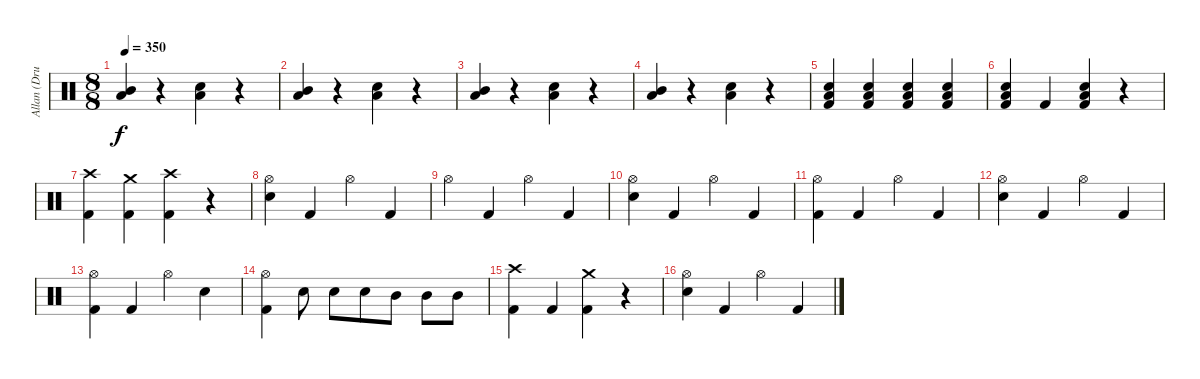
\track ("Allan (Drums)" "Allan (Dru") {instrument percussion}
\staff {score}
\articulation defaults
\ts (8 8)
\tempo 350
\clef neutral
\ks c
("Low Tom (hit)" "Mid Tom (hit)").4{dy f} r.4 ("Low Tom (hit)" "Snare (hit) 2").4 r.4 |
("Low Tom (hit)" "Mid Tom (hit)").4 r.4 ("Low Tom (hit)" "Snare (hit) 2").4 r.4 |
("Low Tom (hit)" "Mid Tom (hit)").4 r.4 ("Low Tom (hit)" "Snare (hit) 2").4 r.4 |
("Low Tom (hit)" "Mid Tom (hit)").4 r.4 ("Low Tom (hit)" "Snare (hit) 2").4 r.4 |
("Kick (hit) 2" "Low Tom (hit)" "Snare (hit) 2").4 ("Kick (hit) 2" "Low Tom (hit)" "Snare (hit) 2").4 ("Kick (hit) 2" "Low Tom (hit)" "Snare (hit) 2").4 ("Kick (hit) 2" "Low Tom (hit)" "Snare (hit) 2").4 |
("Kick (hit) 2" "Low Tom (hit)" "Snare (hit) 2").4 "Kick (hit) 2".4 ("Kick (hit) 2" "Low Tom (hit)" "Snare (hit) 2").4 r.4 |
("Crash high (hit)" "Kick (hit) 2").4 ("Crash medium (hit)" "Kick (hit) 2").4 ("Crash high (hit)" "Kick (hit) 2").4 r.4 |
("Hi-Hat (open)" "Snare (hit) 2").4 "Kick (hit) 2".4 "Hi-Hat (open)".4 "Kick (hit) 2".4 |
"Hi-Hat (open)".4 "Kick (hit) 2".4 "Hi-Hat (open)".4 "Kick (hit) 2".4 |
("Hi-Hat (open)" "Snare (hit) 2").4 "Kick (hit) 2".4 "Hi-Hat (open)".4 "Kick (hit) 2".4 |
("Hi-Hat (open)" "Kick (hit) 2").4 "Kick (hit) 2".4 "Hi-Hat (open)".4 "Kick (hit) 2".4 |
("Hi-Hat (open)" "Snare (hit) 2").4 "Kick (hit) 2".4 "Hi-Hat (open)".4 "Kick (hit) 2".4 |
("Hi-Hat (open)" "Kick (hit) 2").4 "Kick (hit) 2".4 "Hi-Hat (open)".4 "Snare (hit) 2".4 |
("Hi-Hat (open)" "Kick (hit) 2").4 "Snare (hit) 2".8 "Snare (hit) 2".8 "Snare (hit) 2".8 "Mid Tom (hit)".8 "Mid Tom (hit)".8 "Mid Tom (hit)".8 |
("Crash high (hit)" "Kick (hit) 2").4 "Kick (hit) 2".4 ("Crash medium (hit)" "Kick (hit) 2").4 r.4 |
("Hi-Hat (open)" "Snare (hit) 2").4 "Kick (hit) 2".4 "Hi-Hat (open)".4 "Kick (hit) 2".4
